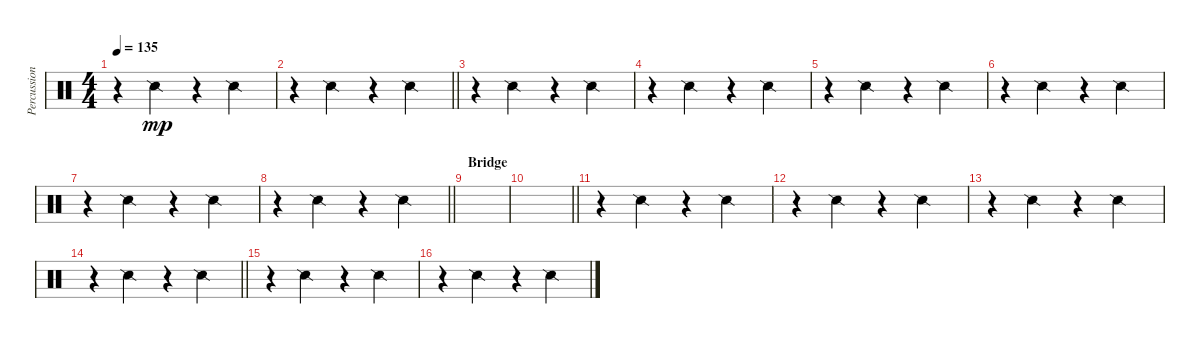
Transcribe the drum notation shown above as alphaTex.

\track ("Percussion" "Percussion") {instrument percussion}
\staff {score}
\articulation defaults
\ts (4 4)
\tempo 135
\clef neutral
\ks c
r.4{dy mp} "Snare (side stick) 2".4 r.4 "Snare (side stick) 2".4 |
\barLineRight lightlight
r.4 "Snare (side stick) 2".4 r.4 "Snare (side stick) 2".4 |
\section ("" "")
r.4 "Snare (side stick) 2".4 r.4 "Snare (side stick) 2".4 |
r.4 "Snare (side stick) 2".4 r.4 "Snare (side stick) 2".4 |
r.4 "Snare (side stick) 2".4 r.4 "Snare (side stick) 2".4 |
r.4 "Snare (side stick) 2".4 r.4 "Snare (side stick) 2".4 |
r.4 "Snare (side stick) 2".4 r.4 "Snare (side stick) 2".4 |
\barLineRight lightlight
r.4 "Snare (side stick) 2".4 r.4 "Snare (side stick) 2".4 |
\section ("" "Bridge")
|
\barLineRight lightlight
|
r.4 "Snare (side stick) 2".4 r.4 "Snare (side stick) 2".4 |
r.4 "Snare (side stick) 2".4 r.4 "Snare (side stick) 2".4 |
r.4 "Snare (side stick) 2".4 r.4 "Snare (side stick) 2".4 |
\barLineRight lightlight
r.4 "Snare (side stick) 2".4 r.4 "Snare (side stick) 2".4 |
r.4 "Snare (side stick) 2".4 r.4 "Snare (side stick) 2".4 |
r.4 "Snare (side stick) 2".4 r.4 "Snare (side stick) 2".4
